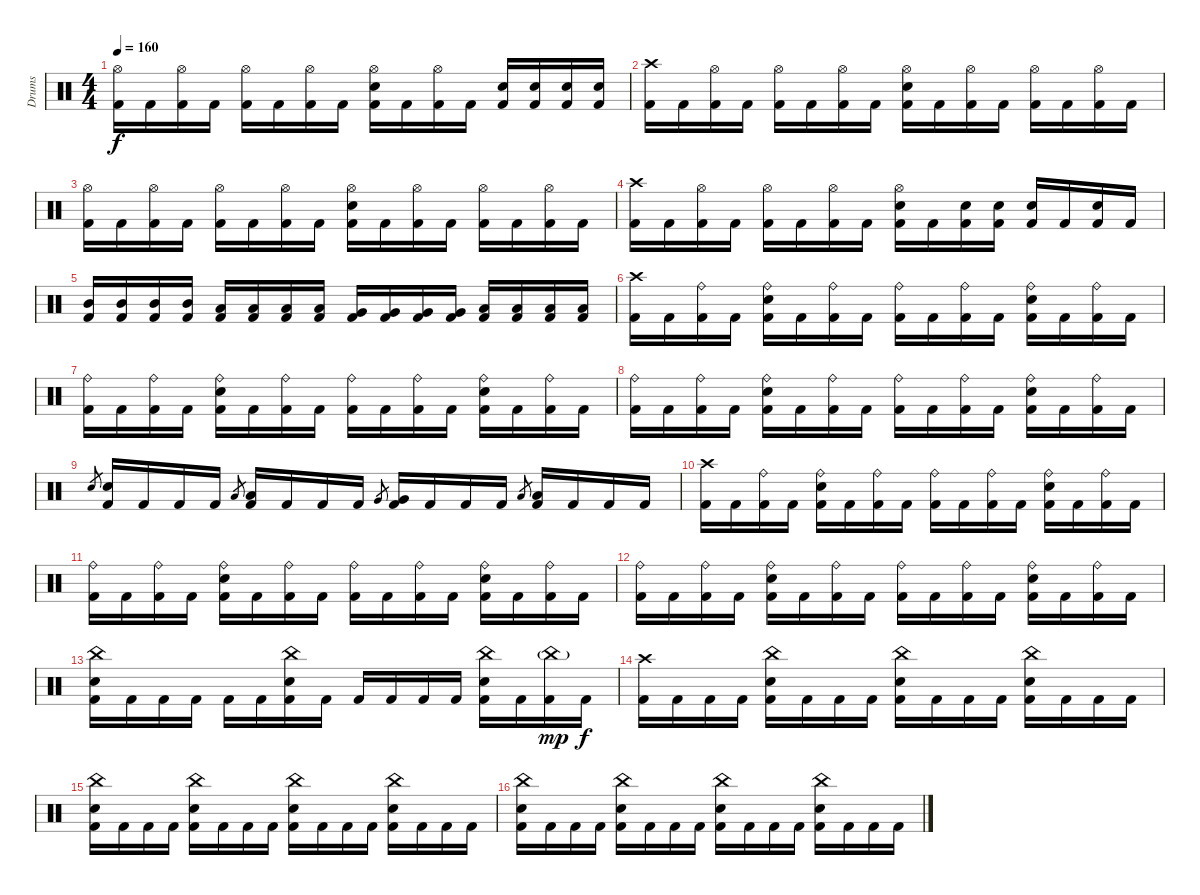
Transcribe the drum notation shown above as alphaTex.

\track ("Drums" "Drums") {instrument percussion}
\staff {score}
\articulation defaults
\ts (4 4)
\tempo 160
\clef neutral
\ks c
("Hi-Hat (open)" "Kick (hit) 2").16{dy f} "Kick (hit) 2".16 ("Hi-Hat (open)" "Kick (hit) 2").16 "Kick (hit) 2".16 ("Hi-Hat (open)" "Kick (hit) 2").16 "Kick (hit) 2".16 ("Hi-Hat (open)" "Kick (hit) 2").16 "Kick (hit) 2".16 ("Hi-Hat (open)" "Snare (hit) 2" "Kick (hit) 2").16 "Kick (hit) 2".16 ("Hi-Hat (open)" "Kick (hit) 2").16 "Kick (hit) 2".16 ("Snare (hit) 2" "Kick (hit) 2").16 ("Snare (hit) 2" "Kick (hit) 2").16 ("Snare (hit) 2" "Kick (hit) 2").16 ("Snare (hit) 2" "Kick (hit) 2").16 |
("Crash high (hit)" "Kick (hit) 2").16 "Kick (hit) 2".16 ("Hi-Hat (open)" "Kick (hit) 2").16 "Kick (hit) 2".16 ("Hi-Hat (open)" "Kick (hit) 2").16 "Kick (hit) 2".16 ("Hi-Hat (open)" "Kick (hit) 2").16 "Kick (hit) 2".16 ("Hi-Hat (open)" "Snare (hit) 2" "Kick (hit) 2").16 "Kick (hit) 2".16 ("Hi-Hat (open)" "Kick (hit) 2").16 "Kick (hit) 2".16 ("Hi-Hat (open)" "Kick (hit) 2").16 "Kick (hit) 2".16 ("Hi-Hat (open)" "Kick (hit) 2").16 "Kick (hit) 2".16 |
("Hi-Hat (open)" "Kick (hit) 2").16 "Kick (hit) 2".16 ("Hi-Hat (open)" "Kick (hit) 2").16 "Kick (hit) 2".16 ("Hi-Hat (open)" "Kick (hit) 2").16 "Kick (hit) 2".16 ("Hi-Hat (open)" "Kick (hit) 2").16 "Kick (hit) 2".16 ("Hi-Hat (open)" "Snare (hit) 2" "Kick (hit) 2").16 "Kick (hit) 2".16 ("Hi-Hat (open)" "Kick (hit) 2").16 "Kick (hit) 2".16 ("Hi-Hat (open)" "Kick (hit) 2").16 "Kick (hit) 2".16 ("Hi-Hat (open)" "Kick (hit) 2").16 "Kick (hit) 2".16 |
("Crash high (hit)" "Kick (hit) 2").16 "Kick (hit) 2".16 ("Hi-Hat (open)" "Kick (hit) 2").16 "Kick (hit) 2".16 ("Hi-Hat (open)" "Kick (hit) 2").16 "Kick (hit) 2".16 ("Hi-Hat (open)" "Kick (hit) 2").16 "Kick (hit) 2".16 ("Hi-Hat (open)" "Snare (hit) 2" "Kick (hit) 2").16 "Kick (hit) 2".16 ("Snare (hit) 2" "Kick (hit) 2").16 ("Snare (hit) 2" "Kick (hit) 2").16 ("Snare (hit) 2" "Kick (hit) 2").16 "Kick (hit) 2".16 ("Snare (hit) 2" "Kick (hit) 2").16 "Kick (hit) 2".16 |
("Mid Tom (hit)" "Kick (hit) 2").16 ("Mid Tom (hit)" "Kick (hit) 2").16 ("Mid Tom (hit)" "Kick (hit) 2").16 ("Mid Tom (hit)" "Kick (hit) 2").16 ("Low Tom (hit)" "Kick (hit) 2").16 ("Low Tom (hit)" "Kick (hit) 2").16 ("Low Tom (hit)" "Kick (hit) 2").16 ("Low Tom (hit)" "Kick (hit) 2").16 ("Very Low Tom (hit)" "Kick (hit) 2").16 ("Very Low Tom (hit)" "Kick (hit) 2").16 ("Very Low Tom (hit)" "Kick (hit) 2").16 ("Very Low Tom (hit)" "Kick (hit) 2").16 ("Low Floor Tom (hit)" "Kick (hit) 2").16 ("Low Floor Tom (hit)" "Kick (hit) 2").16 ("Low Floor Tom (hit)" "Kick (hit) 2").16 ("Low Floor Tom (hit)" "Kick (hit) 2").16 |
("Crash high (hit)" "Kick (hit) 2").16 "Kick (hit) 2".16 ("Ride (bell)" "Kick (hit) 2").16 "Kick (hit) 2".16 ("Ride (bell)" "Snare (hit) 2" "Kick (hit) 2").16 "Kick (hit) 2".16 ("Ride (bell)" "Kick (hit) 2").16 "Kick (hit) 2".16 ("Ride (bell)" "Kick (hit) 2").16 "Kick (hit) 2".16 ("Ride (bell)" "Kick (hit) 2").16 "Kick (hit) 2".16 ("Ride (bell)" "Snare (hit) 2" "Kick (hit) 2").16 "Kick (hit) 2".16 ("Ride (bell)" "Kick (hit) 2").16 "Kick (hit) 2".16 |
("Ride (bell)" "Kick (hit) 2").16 "Kick (hit) 2".16 ("Ride (bell)" "Kick (hit) 2").16 "Kick (hit) 2".16 ("Ride (bell)" "Snare (hit) 2" "Kick (hit) 2").16 "Kick (hit) 2".16 ("Ride (bell)" "Kick (hit) 2").16 "Kick (hit) 2".16 ("Ride (bell)" "Kick (hit) 2").16 "Kick (hit) 2".16 ("Ride (bell)" "Kick (hit) 2").16 "Kick (hit) 2".16 ("Ride (bell)" "Snare (hit) 2" "Kick (hit) 2").16 "Kick (hit) 2".16 ("Ride (bell)" "Kick (hit) 2").16 "Kick (hit) 2".16 |
("Ride (bell)" "Kick (hit) 2").16 "Kick (hit) 2".16 ("Ride (bell)" "Kick (hit) 2").16 "Kick (hit) 2".16 ("Ride (bell)" "Snare (hit) 2" "Kick (hit) 2").16 "Kick (hit) 2".16 ("Ride (bell)" "Kick (hit) 2").16 "Kick (hit) 2".16 ("Ride (bell)" "Kick (hit) 2").16 "Kick (hit) 2".16 ("Ride (bell)" "Kick (hit) 2").16 "Kick (hit) 2".16 ("Ride (bell)" "Snare (hit) 2" "Kick (hit) 2").16 "Kick (hit) 2".16 ("Ride (bell)" "Kick (hit) 2").16 "Kick (hit) 2".16 |
"Snare (hit) 2".8{gr} ("Snare (hit) 2" "Kick (hit) 2").16 "Kick (hit) 2".16 "Kick (hit) 2".16 "Kick (hit) 2".16 "Low Tom (hit)".8{gr} ("Low Tom (hit)" "Kick (hit) 2").16 "Kick (hit) 2".16 "Kick (hit) 2".16 "Kick (hit) 2".16 "Very Low Tom (hit)".8{gr} ("Very Low Tom (hit)" "Kick (hit) 2").16 "Kick (hit) 2".16 "Kick (hit) 2".16 "Kick (hit) 2".16 "Low Floor Tom (hit)".8{gr} ("Low Floor Tom (hit)" "Kick (hit) 2").16 "Kick (hit) 2".16 "Kick (hit) 2".16 "Kick (hit) 2".16 |
("Crash high (hit)" "Kick (hit) 2").16 "Kick (hit) 2".16 ("Ride (bell)" "Kick (hit) 2").16 "Kick (hit) 2".16 ("Ride (bell)" "Snare (hit) 2" "Kick (hit) 2").16 "Kick (hit) 2".16 ("Ride (bell)" "Kick (hit) 2").16 "Kick (hit) 2".16 ("Ride (bell)" "Kick (hit) 2").16 "Kick (hit) 2".16 ("Ride (bell)" "Kick (hit) 2").16 "Kick (hit) 2".16 ("Ride (bell)" "Snare (hit) 2" "Kick (hit) 2").16 "Kick (hit) 2".16 ("Ride (bell)" "Kick (hit) 2").16 "Kick (hit) 2".16 |
("Ride (bell)" "Kick (hit) 2").16 "Kick (hit) 2".16 ("Ride (bell)" "Kick (hit) 2").16 "Kick (hit) 2".16 ("Ride (bell)" "Snare (hit) 2" "Kick (hit) 2").16 "Kick (hit) 2".16 ("Ride (bell)" "Kick (hit) 2").16 "Kick (hit) 2".16 ("Ride (bell)" "Kick (hit) 2").16 "Kick (hit) 2".16 ("Ride (bell)" "Kick (hit) 2").16 "Kick (hit) 2".16 ("Ride (bell)" "Snare (hit) 2" "Kick (hit) 2").16 "Kick (hit) 2".16 ("Ride (bell)" "Kick (hit) 2").16 "Kick (hit) 2".16 |
("Ride (bell)" "Kick (hit) 2").16 "Kick (hit) 2".16 ("Ride (bell)" "Kick (hit) 2").16 "Kick (hit) 2".16 ("Ride (bell)" "Snare (hit) 2" "Kick (hit) 2").16 "Kick (hit) 2".16 ("Ride (bell)" "Kick (hit) 2").16 "Kick (hit) 2".16 ("Ride (bell)" "Kick (hit) 2").16 "Kick (hit) 2".16 ("Ride (bell)" "Kick (hit) 2").16 "Kick (hit) 2".16 ("Ride (bell)" "Snare (hit) 2" "Kick (hit) 2").16 "Kick (hit) 2".16 ("Ride (bell)" "Kick (hit) 2").16 "Kick (hit) 2".16 |
("China (hit)" "Snare (hit) 2" "Kick (hit) 2").16 "Kick (hit) 2".16 "Kick (hit) 2".16 "Kick (hit) 2".16 "Kick (hit) 2".16 "Kick (hit) 2".16 ("China (hit)" "Snare (hit) 2" "Kick (hit) 2").16 "Kick (hit) 2".16 "Kick (hit) 2".16 "Kick (hit) 2".16 "Kick (hit) 2".16 "Kick (hit) 2".16 ("China (hit)" "Snare (hit) 2" "Kick (hit) 2").16 "Kick (hit) 2".16 ("China (hit)"{g} "Kick (hit) 2").16{dy mp} "Kick (hit) 2".16{dy f} |
("Crash high (hit)" "Kick (hit) 2").16 "Kick (hit) 2".16 "Kick (hit) 2".16 "Kick (hit) 2".16 ("China (hit)" "Snare (hit) 2" "Kick (hit) 2").16 "Kick (hit) 2".16 "Kick (hit) 2".16 "Kick (hit) 2".16 ("China (hit)" "Snare (hit) 2" "Kick (hit) 2").16 "Kick (hit) 2".16 "Kick (hit) 2".16 "Kick (hit) 2".16 ("China (hit)" "Snare (hit) 2" "Kick (hit) 2").16 "Kick (hit) 2".16 "Kick (hit) 2".16 "Kick (hit) 2".16 |
("China (hit)" "Snare (hit) 2" "Kick (hit) 2").16 "Kick (hit) 2".16 "Kick (hit) 2".16 "Kick (hit) 2".16 ("China (hit)" "Snare (hit) 2" "Kick (hit) 2").16 "Kick (hit) 2".16 "Kick (hit) 2".16 "Kick (hit) 2".16 ("China (hit)" "Snare (hit) 2" "Kick (hit) 2").16 "Kick (hit) 2".16 "Kick (hit) 2".16 "Kick (hit) 2".16 ("China (hit)" "Snare (hit) 2" "Kick (hit) 2").16 "Kick (hit) 2".16 "Kick (hit) 2".16 "Kick (hit) 2".16 |
("China (hit)" "Snare (hit) 2" "Kick (hit) 2").16 "Kick (hit) 2".16 "Kick (hit) 2".16 "Kick (hit) 2".16 ("China (hit)" "Snare (hit) 2" "Kick (hit) 2").16 "Kick (hit) 2".16 "Kick (hit) 2".16 "Kick (hit) 2".16 ("China (hit)" "Snare (hit) 2" "Kick (hit) 2").16 "Kick (hit) 2".16 "Kick (hit) 2".16 "Kick (hit) 2".16 ("China (hit)" "Snare (hit) 2" "Kick (hit) 2").16 "Kick (hit) 2".16 "Kick (hit) 2".16 "Kick (hit) 2".16
